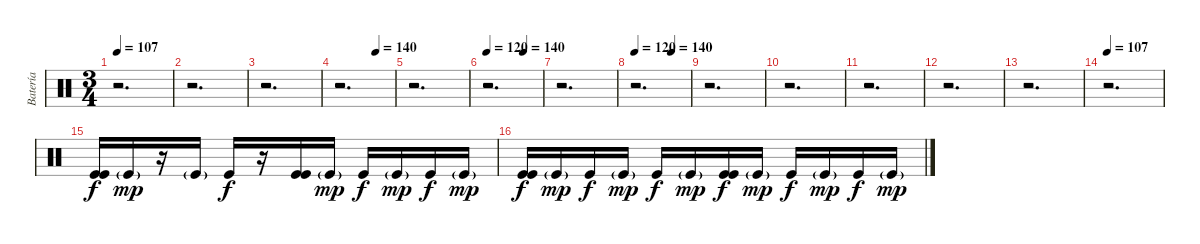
\track ("Batería" "Batería") {instrument percussion}
\staff {score}
\articulation defaults
\ts (3 4)
\tempo 107
\clef neutral
\ks c
r.2{d dy f} |
r.2{d} |
r.2{d} |
\tempo (140 0.6666666666666666)
r.2{d} |
r.2{d} |
\tempo 120
\tempo (140 0.6666666666666666)
r.2{d} |
r.2{d} |
\tempo 120
\tempo (140 0.6666666666666666)
r.2{d} |
r.2{d} |
r.2{d} |
r.2{d} |
r.2{d} |
r.2{d} |
\tempo 107
r.2{d} |
("Kick (hit)" "Kick (hit)").16 "Kick (hit)"{g}.16{dy mp} r.16 "Kick (hit)"{g}.16 "Kick (hit)".16{dy f} r.16 ("Kick (hit)" "Kick (hit)").16 "Kick (hit)"{g}.16{dy mp} "Kick (hit)".16{dy f} "Kick (hit)"{g}.16{dy mp} "Kick (hit)".16{dy f} "Kick (hit)"{g}.16{dy mp} |
("Kick (hit)" "Kick (hit)").16{dy f} "Kick (hit)"{g}.16{dy mp} "Kick (hit)".16{dy f} "Kick (hit)"{g}.16{dy mp} "Kick (hit)".16{dy f} "Kick (hit)"{g}.16{dy mp} ("Kick (hit)" "Kick (hit)").16{dy f} "Kick (hit)"{g}.16{dy mp} "Kick (hit)".16{dy f} "Kick (hit)"{g}.16{dy mp} "Kick (hit)".16{dy f} "Kick (hit)"{g}.16{dy mp}
